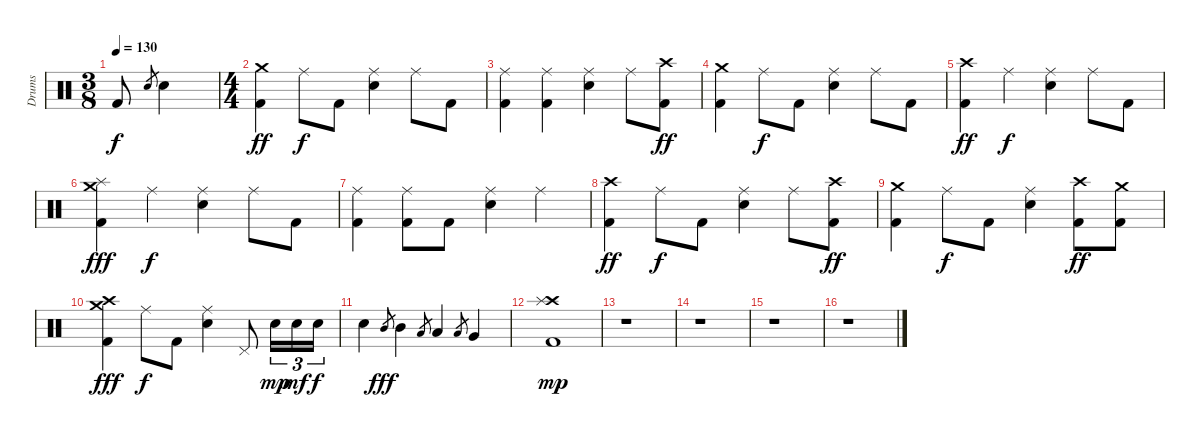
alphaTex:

\track ("Drums" "Drums") {instrument percussion}
\staff {score}
\articulation defaults
\ts (3 8)
\tempo 130
\clef neutral
\ks c "Kick (hit) 2".8{dy f} "Snare (hit) 2".8{gr} "Snare (hit) 2".4
|
\ts (4 4)
("Crash medium (hit)" "Kick (hit) 2").4{dy ff} "Ride (middle)".8{dy f} "Kick (hit) 2".8 ("Ride (middle)" "Snare (hit) 2").4 "Ride (middle)".8 "Kick (hit) 2".8 |
("Ride (middle)" "Kick (hit) 2").4 ("Ride (middle)" "Kick (hit) 2").4 ("Ride (middle)" "Snare (hit) 2").4 "Ride (middle)".8 ("Crash high (hit)" "Kick (hit) 2").8{dy ff} |
("Crash medium (hit)" "Kick (hit) 2").4 "Ride (middle)".8{dy f} "Kick (hit) 2".8 ("Ride (middle)" "Snare (hit) 2").4 "Ride (middle)".8 "Kick (hit) 2".8 |
("Crash high (hit)" "Kick (hit) 2").4{dy ff} "Ride (middle)".4{dy f} ("Ride (middle)" "Snare (hit) 2").4 "Ride (middle)".8 "Kick (hit) 2".8 |
("Splash (hit)" "Crash medium (hit)" "Kick (hit) 2").4{dy fff} "Ride (middle)".4{dy f} ("Ride (middle)" "Snare (hit) 2").4 "Ride (middle)".8 "Kick (hit) 2".8 |
("Ride (middle)" "Kick (hit) 2").4 ("Ride (middle)" "Kick (hit) 2").8 "Kick (hit) 2".8 ("Ride (middle)" "Snare (hit) 2").4 "Ride (middle)".4 |
("Crash high (hit)" "Kick (hit) 2").4{dy ff} "Ride (middle)".8{dy f} "Kick (hit) 2".8 ("Ride (middle)" "Snare (hit) 2").4 "Ride (middle)".8 ("Crash high (hit)" "Kick (hit) 2").8{dy ff} |
("Crash medium (hit)" "Kick (hit) 2").4 "Ride (middle)".8{dy f} "Kick (hit) 2".8 ("Ride (middle)" "Snare (hit) 2").4 ("Crash high (hit)" "Kick (hit) 2").8{dy ff} ("Crash medium (hit)" "Kick (hit) 2").8 |
("Crash high (hit)" "Crash medium (hit)" "Kick (hit) 2").4{dy fff} "Ride (middle)".8{dy f} "Kick (hit) 2".8 ("Ride (middle)" "Snare (hit) 2").4 "Pedal Hi-Hat (hit)".8 "Snare (hit) 2".16{tu (3 2) dy mp} "Snare (hit) 2".16{tu (3 2) dy mf} "Snare (hit) 2".16{tu (3 2) dy f} |
"Snare (hit) 2".4 "Mid Tom (hit)".8{gr dy fff} "Mid Tom (hit)".4 "Low Tom (hit)".8{gr} "Low Tom (hit)".4 "Low Tom (hit)".8{gr} "Very Low Tom (hit)".4 |
("Crash high (hit)" "Splash (hit)" "Kick (hit) 2").1{dy mp} |
r.1 |
r.1 |
r.1 |
r.1
